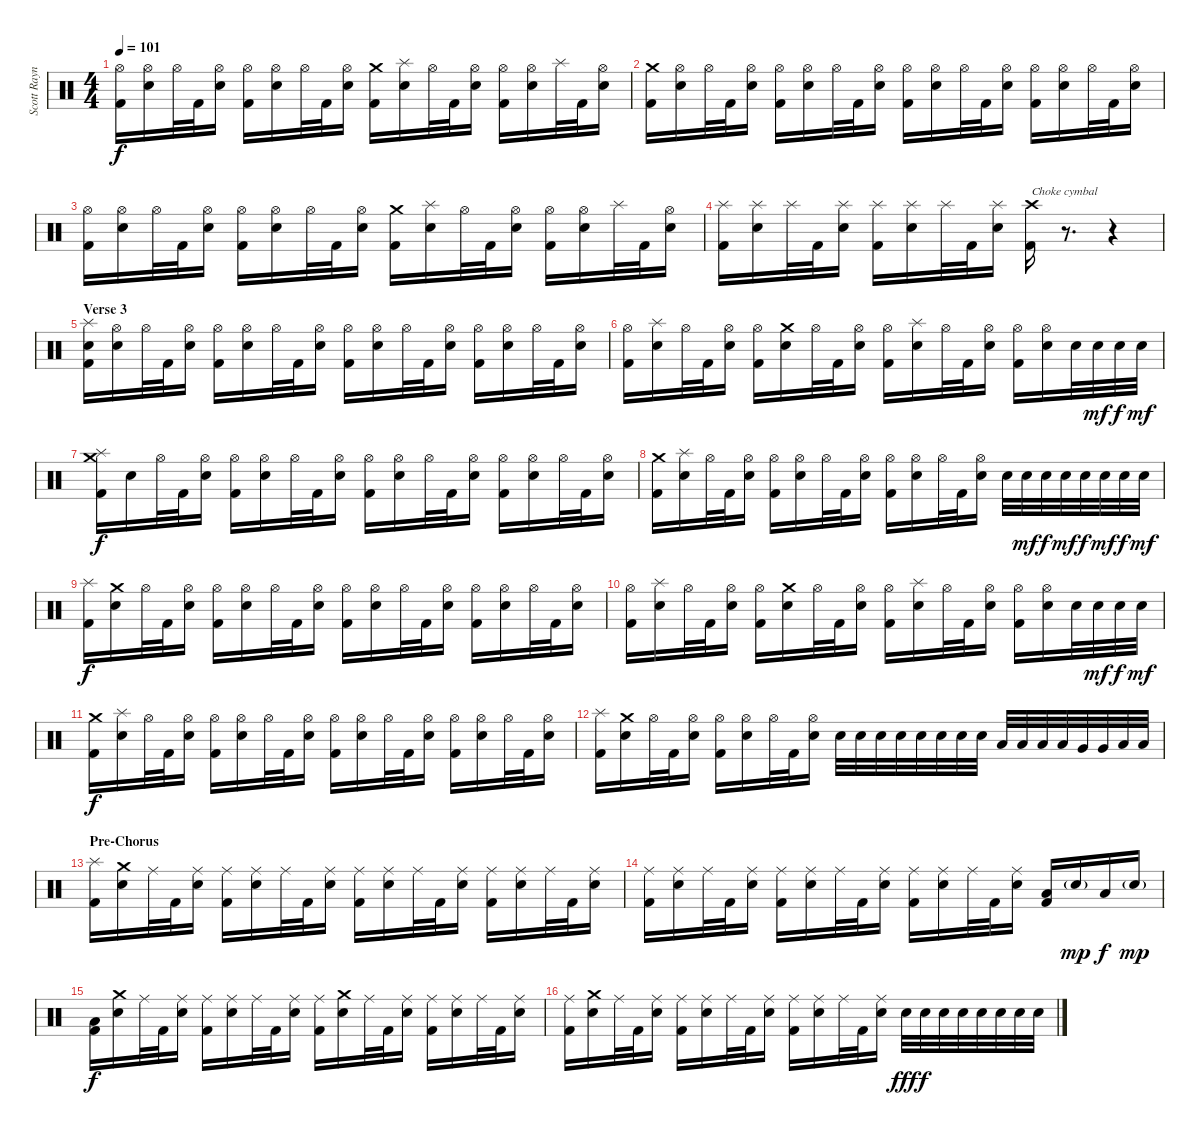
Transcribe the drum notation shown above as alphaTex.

\track ("Scott Raynor" "Scott Rayn") {instrument percussion}
\staff {score}
\articulation defaults
\ts (4 4)
\tempo 101
\clef neutral
\ks c
("Hi-Hat (open)" "Kick (hit) 2").16{dy f} ("Hi-Hat (open)" "Electric Snare (hit)").16 "Hi-Hat (open)".32 "Kick (hit) 2".32 ("Hi-Hat (open)" "Electric Snare (hit)").16 ("Hi-Hat (open)" "Kick (hit) 2").16 ("Hi-Hat (open)" "Electric Snare (hit)").16 "Hi-Hat (open)".32 "Kick (hit) 2".32 ("Hi-Hat (open)" "Electric Snare (hit)").16 ("Crash medium (hit)" "Kick (hit) 2").16 ("Splash (hit)" "Electric Snare (hit)").16 "Hi-Hat (open)".32 "Kick (hit) 2".32 ("Hi-Hat (open)" "Electric Snare (hit)").16 ("Hi-Hat (open)" "Kick (hit) 2").16 ("Hi-Hat (open)" "Electric Snare (hit)").16 "Splash (hit)".32 "Kick (hit) 2".32 ("Hi-Hat (open)" "Electric Snare (hit)").16 |
("Crash medium (hit)" "Kick (hit) 2").16 ("Hi-Hat (open)" "Electric Snare (hit)").16 "Hi-Hat (open)".32 "Kick (hit) 2".32 ("Hi-Hat (open)" "Electric Snare (hit)").16 ("Hi-Hat (open)" "Kick (hit) 2").16 ("Hi-Hat (open)" "Electric Snare (hit)").16 "Hi-Hat (open)".32 "Kick (hit) 2".32 ("Hi-Hat (open)" "Electric Snare (hit)").16 ("Hi-Hat (open)" "Kick (hit) 2").16 ("Hi-Hat (open)" "Electric Snare (hit)").16 "Hi-Hat (open)".32 "Kick (hit) 2".32 ("Hi-Hat (open)" "Electric Snare (hit)").16 ("Hi-Hat (open)" "Kick (hit) 2").16 ("Hi-Hat (open)" "Electric Snare (hit)").16 "Hi-Hat (open)".32 "Kick (hit) 2".32 ("Hi-Hat (open)" "Electric Snare (hit)").16 |
("Hi-Hat (open)" "Kick (hit) 2").16 ("Hi-Hat (open)" "Electric Snare (hit)").16 "Hi-Hat (open)".32 "Kick (hit) 2".32 ("Hi-Hat (open)" "Electric Snare (hit)").16 ("Hi-Hat (open)" "Kick (hit) 2").16 ("Hi-Hat (open)" "Electric Snare (hit)").16 "Hi-Hat (open)".32 "Kick (hit) 2".32 ("Hi-Hat (open)" "Electric Snare (hit)").16 ("Crash medium (hit)" "Kick (hit) 2").16 ("Splash (hit)" "Electric Snare (hit)").16 "Hi-Hat (open)".32 "Kick (hit) 2".32 ("Hi-Hat (open)" "Electric Snare (hit)").16 ("Hi-Hat (open)" "Kick (hit) 2").16 ("Hi-Hat (open)" "Electric Snare (hit)").16 "Splash (hit)".32 "Kick (hit) 2".32 ("Hi-Hat (open)" "Electric Snare (hit)").16 |
("Splash (hit)" "Kick (hit) 2").16 ("Splash (hit)" "Electric Snare (hit)").16 "Splash (hit)".32 "Kick (hit) 2".32 ("Splash (hit)" "Electric Snare (hit)").16 ("Splash (hit)" "Kick (hit) 2").16 ("Splash (hit)" "Electric Snare (hit)").16 "Splash (hit)".32 "Kick (hit) 2".32 ("Splash (hit)" "Electric Snare (hit)").16 ("Crash high (hit)" "Kick (hit) 2").16{txt "Choke cymbal" volume 0} r.8{d} r.4{volume 13} |
\section ("" "Verse 3")
("Splash (hit)" "Snare (hit)" "Kick (hit) 2").16 ("Hi-Hat (open)" "Electric Snare (hit)").16 "Hi-Hat (open)".32 "Kick (hit) 2".32 ("Hi-Hat (open)" "Electric Snare (hit)").16 ("Hi-Hat (open)" "Kick (hit) 2").16 ("Hi-Hat (open)" "Electric Snare (hit)").16 "Hi-Hat (open)".32 "Kick (hit) 2".32 ("Hi-Hat (open)" "Electric Snare (hit)").16 ("Hi-Hat (open)" "Kick (hit) 2").16 ("Hi-Hat (open)" "Electric Snare (hit)").16 "Hi-Hat (open)".32 "Kick (hit) 2".32 ("Hi-Hat (open)" "Electric Snare (hit)").16 ("Hi-Hat (open)" "Kick (hit) 2").16 ("Hi-Hat (open)" "Electric Snare (hit)").16 "Hi-Hat (open)".32 "Kick (hit) 2".32 ("Hi-Hat (open)" "Electric Snare (hit)").16 |
("Hi-Hat (open)" "Kick (hit) 2").16 ("Splash (hit)" "Electric Snare (hit)").16 "Hi-Hat (open)".32 "Kick (hit) 2".32 ("Hi-Hat (open)" "Electric Snare (hit)").16 ("Hi-Hat (open)" "Kick (hit) 2").16 ("Crash medium (hit)" "Electric Snare (hit)").16 "Hi-Hat (open)".32 "Kick (hit) 2".32 ("Hi-Hat (open)" "Electric Snare (hit)").16 ("Hi-Hat (open)" "Kick (hit) 2").16 ("Splash (hit)" "Electric Snare (hit)").16 "Hi-Hat (open)".32 "Kick (hit) 2".32 ("Hi-Hat (open)" "Electric Snare (hit)").16 ("Hi-Hat (open)" "Kick (hit) 2").16 ("Hi-Hat (open)" "Electric Snare (hit)").16 "Electric Snare (hit)".32 "Electric Snare (hit)".32{dy mf} "Electric Snare (hit)".32{dy f} "Electric Snare (hit)".32{dy mf} |
("Splash (hit)" "Crash medium (hit)" "Kick (hit) 2").16{dy f} "Electric Snare (hit)".16 "Hi-Hat (open)".32 "Kick (hit) 2".32 ("Hi-Hat (open)" "Electric Snare (hit)").16 ("Hi-Hat (open)" "Kick (hit) 2").16 ("Hi-Hat (open)" "Electric Snare (hit)").16 "Hi-Hat (open)".32 "Kick (hit) 2".32 ("Hi-Hat (open)" "Electric Snare (hit)").16 ("Hi-Hat (open)" "Kick (hit) 2").16 ("Hi-Hat (open)" "Electric Snare (hit)").16 "Hi-Hat (open)".32 "Kick (hit) 2".32 ("Hi-Hat (open)" "Electric Snare (hit)").16 ("Hi-Hat (open)" "Kick (hit) 2").16 ("Hi-Hat (open)" "Electric Snare (hit)").16 "Hi-Hat (open)".32 "Kick (hit) 2".32 ("Hi-Hat (open)" "Electric Snare (hit)").16 |
("Crash medium (hit)" "Kick (hit) 2").16 ("Splash (hit)" "Electric Snare (hit)").16 "Hi-Hat (open)".32 "Kick (hit) 2".32 ("Hi-Hat (open)" "Electric Snare (hit)").16 ("Hi-Hat (open)" "Kick (hit) 2").16 ("Hi-Hat (open)" "Electric Snare (hit)").16 "Hi-Hat (open)".32 "Kick (hit) 2".32 ("Hi-Hat (open)" "Electric Snare (hit)").16 ("Hi-Hat (open)" "Kick (hit) 2").16 ("Hi-Hat (open)" "Electric Snare (hit)").16 "Hi-Hat (open)".32 "Kick (hit) 2".32 ("Hi-Hat (open)" "Electric Snare (hit)").16 "Electric Snare (hit)".32 "Electric Snare (hit)".32{dy mf} "Electric Snare (hit)".32{dy f} "Electric Snare (hit)".32{dy mf} "Electric Snare (hit)".32{dy f} "Electric Snare (hit)".32{dy mf} "Electric Snare (hit)".32{dy f} "Electric Snare (hit)".32{dy mf} |
("Splash (hit)" "Kick (hit) 2").16{dy f} ("Crash medium (hit)" "Electric Snare (hit)").16 "Hi-Hat (open)".32 "Kick (hit) 2".32 ("Hi-Hat (open)" "Electric Snare (hit)").16 ("Hi-Hat (open)" "Kick (hit) 2").16 ("Hi-Hat (open)" "Electric Snare (hit)").16 "Hi-Hat (open)".32 "Kick (hit) 2".32 ("Hi-Hat (open)" "Electric Snare (hit)").16 ("Hi-Hat (open)" "Kick (hit) 2").16 ("Hi-Hat (open)" "Electric Snare (hit)").16 "Hi-Hat (open)".32 "Kick (hit) 2".32 ("Hi-Hat (open)" "Electric Snare (hit)").16 ("Hi-Hat (open)" "Kick (hit) 2").16 ("Hi-Hat (open)" "Electric Snare (hit)").16 "Hi-Hat (open)".32 "Kick (hit) 2".32 ("Hi-Hat (open)" "Electric Snare (hit)").16 |
("Hi-Hat (open)" "Kick (hit) 2").16 ("Splash (hit)" "Electric Snare (hit)").16 "Hi-Hat (open)".32 "Kick (hit) 2".32 ("Hi-Hat (open)" "Electric Snare (hit)").16 ("Hi-Hat (open)" "Kick (hit) 2").16 ("Crash medium (hit)" "Electric Snare (hit)").16 "Hi-Hat (open)".32 "Kick (hit) 2".32 ("Hi-Hat (open)" "Electric Snare (hit)").16 ("Hi-Hat (open)" "Kick (hit) 2").16 ("Splash (hit)" "Electric Snare (hit)").16 "Hi-Hat (open)".32 "Kick (hit) 2".32 ("Hi-Hat (open)" "Electric Snare (hit)").16 ("Hi-Hat (open)" "Kick (hit) 2").16 ("Hi-Hat (open)" "Electric Snare (hit)").16 "Electric Snare (hit)".32 "Electric Snare (hit)".32{dy mf} "Electric Snare (hit)".32{dy f} "Electric Snare (hit)".32{dy mf} |
("Crash medium (hit)" "Kick (hit) 2").16{dy f} ("Splash (hit)" "Electric Snare (hit)").16 "Hi-Hat (open)".32 "Kick (hit) 2".32 ("Hi-Hat (open)" "Electric Snare (hit)").16 ("Hi-Hat (open)" "Kick (hit) 2").16 ("Hi-Hat (open)" "Electric Snare (hit)").16 "Hi-Hat (open)".32 "Kick (hit) 2".32 ("Hi-Hat (open)" "Electric Snare (hit)").16 ("Hi-Hat (open)" "Kick (hit) 2").16 ("Hi-Hat (open)" "Electric Snare (hit)").16 "Hi-Hat (open)".32 "Kick (hit) 2".32 ("Hi-Hat (open)" "Electric Snare (hit)").16 ("Hi-Hat (open)" "Kick (hit) 2").16 ("Hi-Hat (open)" "Electric Snare (hit)").16 "Hi-Hat (open)".32 "Kick (hit) 2".32 ("Hi-Hat (open)" "Electric Snare (hit)").16 |
("Splash (hit)" "Kick (hit) 2").16 ("Crash medium (hit)" "Electric Snare (hit)").16 "Hi-Hat (open)".32 "Kick (hit) 2".32 ("Hi-Hat (open)" "Electric Snare (hit)").16 ("Hi-Hat (open)" "Kick (hit) 2").16 ("Hi-Hat (open)" "Electric Snare (hit)").16 "Hi-Hat (open)".32 "Kick (hit) 2".32 ("Hi-Hat (open)" "Electric Snare (hit)").16 "Electric Snare (hit)".32 "Electric Snare (hit)".32 "Electric Snare (hit)".32 "Electric Snare (hit)".32 "Electric Snare (hit)".32 "Electric Snare (hit)".32 "Electric Snare (hit)".32 "Electric Snare (hit)".32 "Low Tom (hit)".32 "Low Tom (hit)".32 "Low Tom (hit)".32 "Low Tom (hit)".32 "Very Low Tom (hit)".32 "Very Low Tom (hit)".32 "Low Floor Tom (hit)".32 "Low Floor Tom (hit)".32 |
\section ("" "Pre-Chorus")
("Splash (hit)" "Kick (hit) 2").16 ("Crash medium (hit)" "Electric Snare (hit)").16 "Ride (middle)".32 "Kick (hit) 2".32 ("Ride (middle)" "Electric Snare (hit)").16 ("Ride (middle)" "Kick (hit) 2").16 ("Ride (middle)" "Electric Snare (hit)").16 "Ride (middle)".32 "Kick (hit) 2".32 ("Ride (middle)" "Electric Snare (hit)").16 ("Ride (middle)" "Kick (hit) 2").16 ("Ride (middle)" "Electric Snare (hit)").16 "Ride (middle)".32 "Kick (hit) 2".32 ("Ride (middle)" "Electric Snare (hit)").16 ("Ride (middle)" "Kick (hit) 2").16 ("Ride (middle)" "Electric Snare (hit)").16 "Ride (middle)".32 "Kick (hit) 2".32 ("Ride (middle)" "Electric Snare (hit)").16 |
("Ride (middle)" "Kick (hit) 2").16 ("Ride (middle)" "Electric Snare (hit)").16 "Ride (middle)".32 "Kick (hit) 2".32 ("Ride (middle)" "Electric Snare (hit)").16 ("Ride (middle)" "Kick (hit) 2").16 ("Ride (middle)" "Electric Snare (hit)").16 "Ride (middle)".32 "Kick (hit) 2".32 ("Ride (middle)" "Electric Snare (hit)").16 ("Ride (middle)" "Kick (hit) 2").16 ("Ride (middle)" "Electric Snare (hit)").16 "Ride (middle)".32 "Kick (hit) 2".32 ("Ride (middle)" "Electric Snare (hit)").16 ("Low Floor Tom (hit)" "Kick (hit) 2").16 "Electric Snare (hit)"{g}.16{dy mp} "Low Floor Tom (hit)".16{dy f} "Electric Snare (hit)"{g}.16{dy mp} |
("Low Floor Tom (hit)" "Kick (hit) 2").16{dy f} ("Crash medium (hit)" "Electric Snare (hit)").16 "Ride (middle)".32 "Kick (hit) 2".32 ("Ride (middle)" "Electric Snare (hit)").16 ("Ride (middle)" "Kick (hit) 2").16 ("Ride (middle)" "Electric Snare (hit)").16 "Ride (middle)".32 "Kick (hit) 2".32 ("Ride (middle)" "Electric Snare (hit)").16 ("Ride (middle)" "Kick (hit) 2").16 ("Crash medium (hit)" "Electric Snare (hit)").16 "Ride (middle)".32 "Kick (hit) 2".32 ("Ride (middle)" "Electric Snare (hit)").16 ("Ride (middle)" "Kick (hit) 2").16 ("Ride (middle)" "Electric Snare (hit)").16 "Ride (middle)".32 "Kick (hit) 2".32 ("Ride (middle)" "Electric Snare (hit)").16 |
("Ride (middle)" "Kick (hit) 2").16 ("Crash medium (hit)" "Electric Snare (hit)").16 "Ride (middle)".32 "Kick (hit) 2".32 ("Ride (middle)" "Electric Snare (hit)").16 ("Ride (middle)" "Kick (hit) 2").16 ("Ride (middle)" "Electric Snare (hit)").16 "Ride (middle)".32 "Kick (hit) 2".32 ("Ride (middle)" "Electric Snare (hit)").16 ("Ride (middle)" "Kick (hit) 2").16 ("Ride (middle)" "Electric Snare (hit)").16 "Ride (middle)".32 "Kick (hit) 2".32 ("Ride (middle)" "Electric Snare (hit)").16 "Electric Snare (hit)".32{dy fff} "Electric Snare (hit)".32{dy f} "Electric Snare (hit)".32 "Electric Snare (hit)".32 "Electric Snare (hit)".32 "Electric Snare (hit)".32 "Electric Snare (hit)".32 "Electric Snare (hit)".32
